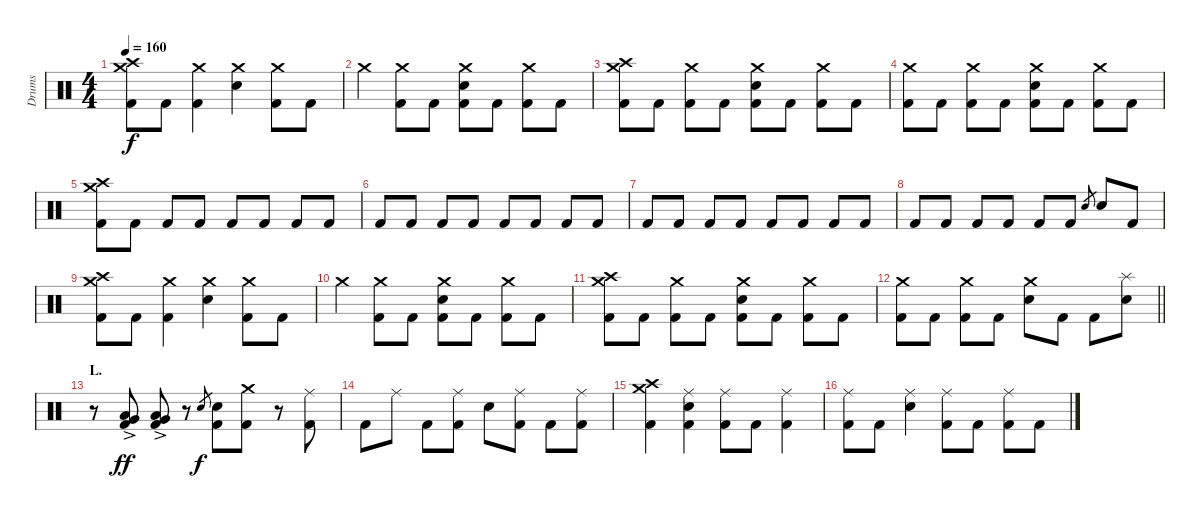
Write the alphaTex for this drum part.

\track ("Drums" "Drums") {instrument percussion}
\staff {score}
\articulation defaults
\ts (4 4)
\tempo 160
\clef neutral
\ks c
("Crash medium (hit)" "Crash high (hit)" "Kick (hit) 2").8{dy f} "Kick (hit) 2".8 ("Crash medium (hit)" "Kick (hit) 2").4 ("Crash medium (hit)" "Electric Snare (hit)").4 ("Crash medium (hit)" "Kick (hit) 2").8 "Kick (hit) 2".8 |
"Crash medium (hit)".4 ("Crash medium (hit)" "Kick (hit) 2").8 "Kick (hit) 2".8 ("Crash medium (hit)" "Electric Snare (hit)" "Kick (hit) 2").8 "Kick (hit) 2".8 ("Crash medium (hit)" "Kick (hit) 2").8 "Kick (hit) 2".8 |
("Crash medium (hit)" "Crash high (hit)" "Kick (hit) 2").8 "Kick (hit) 2".8 ("Crash medium (hit)" "Kick (hit) 2").8 "Kick (hit) 2".8 ("Crash medium (hit)" "Electric Snare (hit)" "Kick (hit) 2").8 "Kick (hit) 2".8 ("Crash medium (hit)" "Kick (hit) 2").8 "Kick (hit) 2".8 |
("Crash medium (hit)" "Kick (hit) 2").8 "Kick (hit) 2".8 ("Crash medium (hit)" "Kick (hit) 2").8 "Kick (hit) 2".8 ("Crash medium (hit)" "Electric Snare (hit)" "Kick (hit) 2").8 "Kick (hit) 2".8 ("Crash medium (hit)" "Kick (hit) 2").8 "Kick (hit) 2".8 |
("Crash medium (hit)" "Crash high (hit)" "Kick (hit) 2").8 "Kick (hit) 2".8 "Kick (hit) 2".8 "Kick (hit) 2".8 "Kick (hit) 2".8 "Kick (hit) 2".8 "Kick (hit) 2".8 "Kick (hit) 2".8 |
"Kick (hit) 2".8 "Kick (hit) 2".8 "Kick (hit) 2".8 "Kick (hit) 2".8 "Kick (hit) 2".8 "Kick (hit) 2".8 "Kick (hit) 2".8 "Kick (hit) 2".8 |
"Kick (hit) 2".8 "Kick (hit) 2".8 "Kick (hit) 2".8 "Kick (hit) 2".8 "Kick (hit) 2".8 "Kick (hit) 2".8 "Kick (hit) 2".8 "Kick (hit) 2".8 |
"Kick (hit) 2".8 "Kick (hit) 2".8 "Kick (hit) 2".8 "Kick (hit) 2".8 "Kick (hit) 2".8 "Kick (hit) 2".8 "Electric Snare (hit)".8{gr} "Electric Snare (hit)".8 "Kick (hit) 2".8 |
("Crash medium (hit)" "Crash high (hit)" "Kick (hit) 2").8 "Kick (hit) 2".8 ("Crash medium (hit)" "Kick (hit) 2").4 ("Crash medium (hit)" "Electric Snare (hit)").4 ("Crash medium (hit)" "Kick (hit) 2").8 "Kick (hit) 2".8 |
"Crash medium (hit)".4 ("Crash medium (hit)" "Kick (hit) 2").8 "Kick (hit) 2".8 ("Crash medium (hit)" "Electric Snare (hit)" "Kick (hit) 2").8 "Kick (hit) 2".8 ("Crash medium (hit)" "Kick (hit) 2").8 "Kick (hit) 2".8 |
("Crash medium (hit)" "Crash high (hit)" "Kick (hit) 2").8 "Kick (hit) 2".8 ("Crash medium (hit)" "Kick (hit) 2").8 "Kick (hit) 2".8 ("Crash medium (hit)" "Electric Snare (hit)" "Kick (hit) 2").8 "Kick (hit) 2".8 ("Crash medium (hit)" "Kick (hit) 2").8 "Kick (hit) 2".8 |
\barLineRight lightlight
("Crash medium (hit)" "Kick (hit) 2").8 "Kick (hit) 2".8 ("Crash medium (hit)" "Kick (hit) 2").8 "Kick (hit) 2".8 ("Crash medium (hit)" "Electric Snare (hit)").8 "Kick (hit) 2".8 "Kick (hit) 2".8 ("Splash (hit)" "Electric Snare (hit)").8 |
\section ("" "L.")
r.8 ("Low Tom (hit)" "Very Low Tom (hit)"{ac} "Kick (hit) 2").8{dy ff} ("Low Tom (hit)" "Very Low Tom (hit)"{ac} "Kick (hit) 2").8 r.8 "Electric Snare (hit)".8{gr dy f} ("Electric Snare (hit)" "Kick (hit) 2").8 ("Crash medium (hit)" "Kick (hit) 2").8 r.8 ("Ride (middle)" "Kick (hit) 2").8 |
"Kick (hit) 2".8 "Ride (middle)".8 "Kick (hit) 2".8 ("Ride (middle)" "Kick (hit) 2").8 "Electric Snare (hit)".8 ("Ride (middle)" "Kick (hit) 2").8 "Kick (hit) 2".8 ("Ride (middle)" "Kick (hit) 2").8 |
("Crash medium (hit)" "Crash high (hit)" "Kick (hit) 2").4 ("Ride (middle)" "Electric Snare (hit)" "Kick (hit) 2").4 ("Ride (middle)" "Kick (hit) 2").8 "Kick (hit) 2".8 ("Ride (middle)" "Kick (hit) 2").4 |
("Ride (middle)" "Kick (hit) 2").8 "Kick (hit) 2".8 ("Ride (middle)" "Electric Snare (hit)").4 ("Ride (middle)" "Kick (hit) 2").8 "Kick (hit) 2".8 ("Ride (middle)" "Kick (hit) 2").8 "Kick (hit) 2".8
